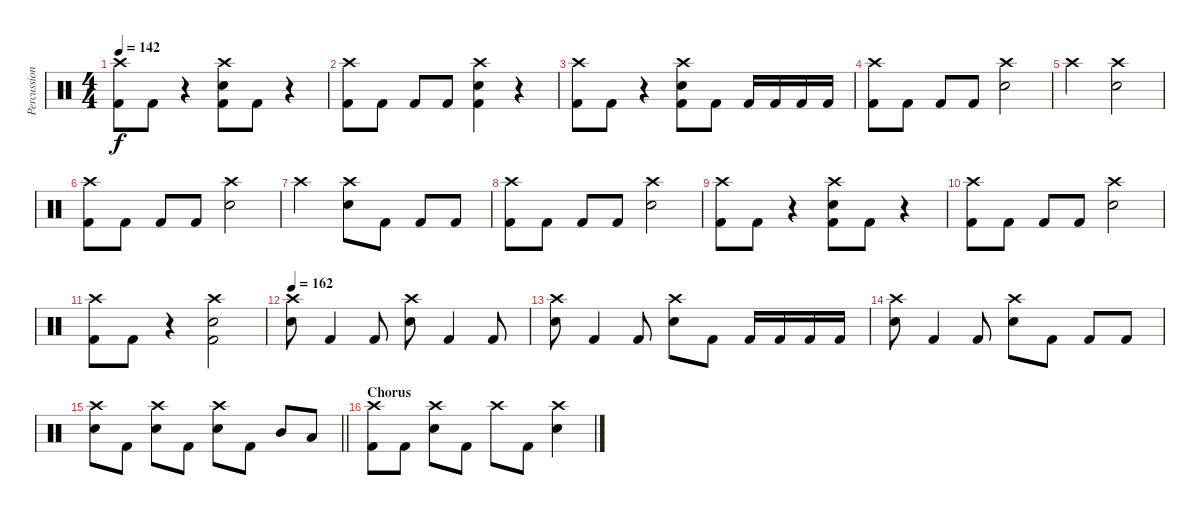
\track ("Percussion" "Percussion") {instrument percussion}
\staff {score}
\articulation defaults
\ts (4 4)
\tempo 142
\clef neutral
\ks c
("Crash high (hit)" "Kick (hit) 2").8{dy f} "Kick (hit) 2".8 r.4 ("Crash high (hit)" "Electric Snare (hit)" "Kick (hit) 2").8 "Kick (hit) 2".8 r.4 |
("Crash high (hit)" "Kick (hit) 2").8 "Kick (hit) 2".8 "Kick (hit) 2".8 "Kick (hit) 2".8 ("Crash high (hit)" "Electric Snare (hit)" "Kick (hit) 2").4 r.4 |
("Crash high (hit)" "Kick (hit) 2").8 "Kick (hit) 2".8 r.4 ("Crash high (hit)" "Electric Snare (hit)" "Kick (hit) 2").8 "Kick (hit) 2".8 "Kick (hit) 2".16 "Kick (hit) 2".16 "Kick (hit) 2".16 "Kick (hit) 2".16 |
("Crash high (hit)" "Kick (hit) 2").8 "Kick (hit) 2".8 "Kick (hit) 2".8 "Kick (hit) 2".8 ("Crash high (hit)" "Electric Snare (hit)").2 |
"Crash high (hit)".2 ("Crash high (hit)" "Electric Snare (hit)").2 |
("Crash high (hit)" "Kick (hit) 2").8 "Kick (hit) 2".8 "Kick (hit) 2".8 "Kick (hit) 2".8 ("Crash high (hit)" "Electric Snare (hit)").2 |
"Crash high (hit)".2 ("Crash high (hit)" "Electric Snare (hit)").8 "Kick (hit) 2".8 "Kick (hit) 2".8 "Kick (hit) 2".8 |
("Crash high (hit)" "Kick (hit) 2").8 "Kick (hit) 2".8 "Kick (hit) 2".8 "Kick (hit) 2".8 ("Crash high (hit)" "Electric Snare (hit)").2 |
("Crash high (hit)" "Kick (hit) 2").8 "Kick (hit) 2".8 r.4 ("Crash high (hit)" "Electric Snare (hit)" "Kick (hit) 2").8 "Kick (hit) 2".8 r.4 |
("Crash high (hit)" "Kick (hit) 2").8 "Kick (hit) 2".8 "Kick (hit) 2".8 "Kick (hit) 2".8 ("Crash high (hit)" "Electric Snare (hit)").2 |
("Crash high (hit)" "Kick (hit) 2").8 "Kick (hit) 2".8 r.4 ("Crash high (hit)" "Electric Snare (hit)" "Kick (hit) 2").2 |
\tempo 162
("Crash high (hit)" "Electric Snare (hit)").8 "Kick (hit) 2".4 "Kick (hit) 2".8 ("Crash high (hit)" "Electric Snare (hit)").8 "Kick (hit) 2".4 "Kick (hit) 2".8 |
("Crash high (hit)" "Electric Snare (hit)").8 "Kick (hit) 2".4 "Kick (hit) 2".8 ("Crash high (hit)" "Electric Snare (hit)").8 "Kick (hit) 2".8 "Kick (hit) 2".16 "Kick (hit) 2".16 "Kick (hit) 2".16 "Kick (hit) 2".16 |
("Crash high (hit)" "Electric Snare (hit)").8 "Kick (hit) 2".4 "Kick (hit) 2".8 ("Crash high (hit)" "Electric Snare (hit)").8 "Kick (hit) 2".8 "Kick (hit) 2".8 "Kick (hit) 2".8 |
\barLineRight lightlight
("Crash high (hit)" "Electric Snare (hit)").8 "Kick (hit) 2".8 ("Crash high (hit)" "Electric Snare (hit)").8 "Kick (hit) 2".8 ("Crash high (hit)" "Electric Snare (hit)").8 "Kick (hit) 2".8 "Mid Tom (hit)".8 "Low Tom (hit)".8 |
\section ("" "Chorus")
("Crash high (hit)" "Kick (hit) 2").8 "Kick (hit) 2".8 ("Crash high (hit)" "Electric Snare (hit)").8 "Kick (hit) 2".8 "Crash high (hit)".8 "Kick (hit) 2".8 ("Crash high (hit)" "Electric Snare (hit)").4
